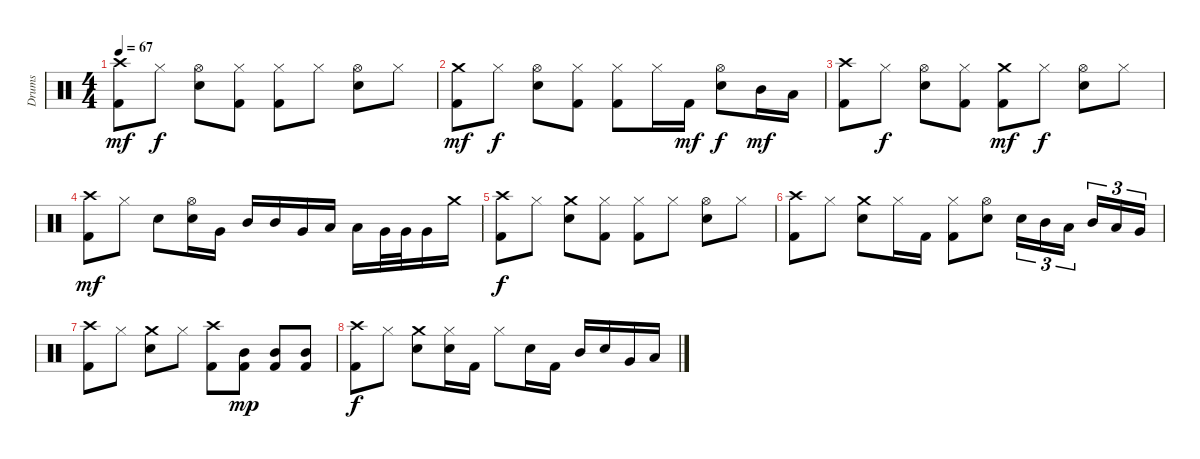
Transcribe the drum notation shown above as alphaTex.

\track ("Drums" "Drums") {instrument percussion}
\staff {score}
\articulation defaults
\ts (4 4)
\tempo 67
\clef neutral
\ks c
("Kick (hit) 2" "Crash high (hit)").8{dy mf} "Hi-Hat (closed)".8{dy f} ("Electric Snare (hit)" "Hi-Hat (open)").8 ("Kick (hit) 2" "Hi-Hat (closed)").8 ("Kick (hit) 2" "Hi-Hat (closed)").8 "Hi-Hat (closed)".8 ("Electric Snare (hit)" "Hi-Hat (open)").8 "Hi-Hat (closed)".8 |
("Kick (hit) 2" "Crash medium (hit)").8{dy mf} "Hi-Hat (closed)".8{dy f} ("Electric Snare (hit)" "Hi-Hat (open)").8 ("Kick (hit) 2" "Hi-Hat (closed)").8 ("Kick (hit) 2" "Hi-Hat (closed)").8 "Hi-Hat (closed)".16 "Kick (hit) 2".16{dy mf} ("Electric Snare (hit)" "Hi-Hat (open)").8{dy f} "Mid Tom (hit)".16{dy mf} "Low Tom (hit)".16 |
("Kick (hit) 2" "Crash high (hit)").8 "Hi-Hat (closed)".8{dy f} ("Electric Snare (hit)" "Hi-Hat (open)").8 ("Kick (hit) 2" "Hi-Hat (closed)").8 ("Kick (hit) 2" "Crash medium (hit)").8{dy mf} "Hi-Hat (closed)".8{dy f} ("Electric Snare (hit)" "Hi-Hat (open)").8 "Hi-Hat (closed)".8 |
("Kick (hit) 2" "Crash high (hit)").8{dy mf} "Hi-Hat (closed)".8 "Electric Snare (hit)".8 ("Electric Snare (hit)" "Hi-Hat (open)").16 "Very Low Tom (hit)".16 "Mid Tom (hit)".16 "Mid Tom (hit)".16 "Very Low Tom (hit)".16 "Low Tom (hit)".16 "Low Tom (hit)".16 "Very Low Tom (hit)".32 "Very Low Tom (hit)".32 "Very Low Tom (hit)".16 "Crash medium (hit)".16 |
("Kick (hit) 2" "Crash high (hit)").8{dy f} "Hi-Hat (closed)".8 ("Electric Snare (hit)" "Crash medium (hit)").8 ("Kick (hit) 2" "Hi-Hat (closed)").8 ("Kick (hit) 2" "Hi-Hat (closed)").8 "Hi-Hat (closed)".8 ("Electric Snare (hit)" "Hi-Hat (open)").8 "Hi-Hat (closed)".8 |
("Kick (hit) 2" "Crash high (hit)").8 "Hi-Hat (closed)".8 ("Electric Snare (hit)" "Crash medium (hit)").8 "Hi-Hat (closed)".16 "Kick (hit) 2".16 ("Kick (hit) 2" "Hi-Hat (closed)").8 ("Electric Snare (hit)" "Hi-Hat (open)").8 "Electric Snare (hit)".16{tu (3 2)} "Mid Tom (hit)".16{tu (3 2)} "Low Tom (hit)".16{tu (3 2) beam splitsecondary} "Mid Tom (hit)".16{tu (3 2)} "Low Tom (hit)".16{tu (3 2)} "Very Low Tom (hit)".16{tu (3 2)} |
("Kick (hit) 2" "Crash high (hit)").8 "Hi-Hat (closed)".8 ("Electric Snare (hit)" "Crash medium (hit)").8 "Hi-Hat (closed)".8 ("Kick (hit) 2" "Crash high (hit)").8 ("Kick (hit) 2" "Mid Tom (hit)").8{dy mp} ("Kick (hit) 2" "Mid Tom (hit)").8 ("Kick (hit) 2" "Mid Tom (hit)").8 |
("Kick (hit) 2" "Crash high (hit)").8{dy f} "Hi-Hat (closed)".8 ("Electric Snare (hit)" "Crash medium (hit)").8 ("Electric Snare (hit)" "Hi-Hat (closed)").16 "Kick (hit) 2".16 "Hi-Hat (closed)".8 "Electric Snare (hit)".16 "Kick (hit) 2".16 "Mid Tom (hit)".16 "Electric Snare (hit)".16 "Very Low Tom (hit)".16 "Low Floor Tom (hit)".16
